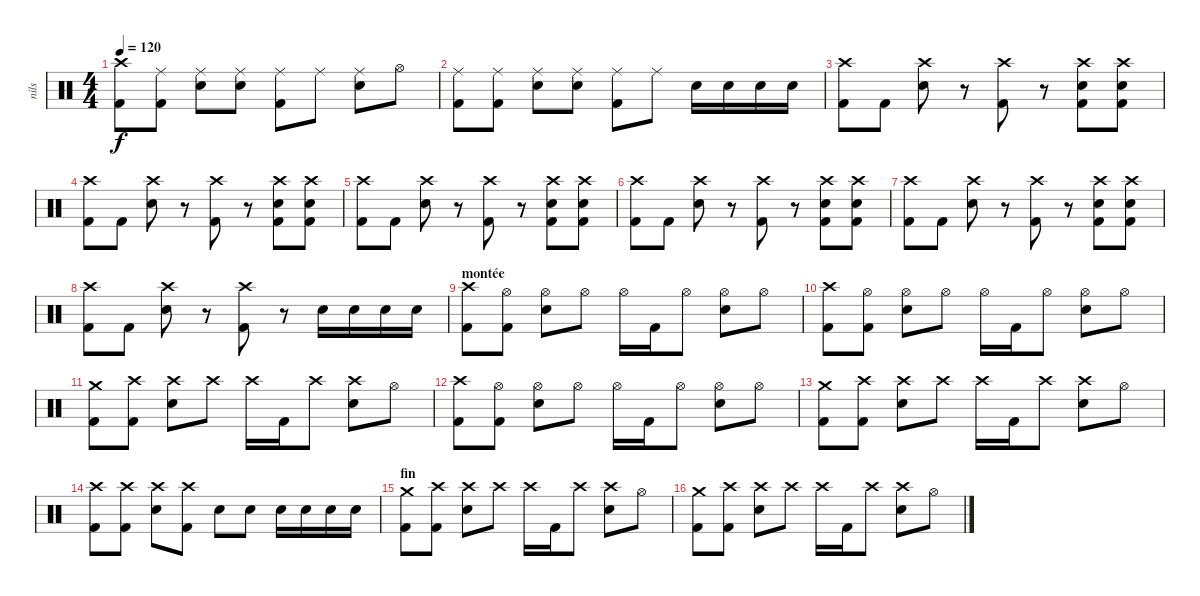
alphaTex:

\track ("nils" "nils") {instrument percussion}
\staff {score}
\articulation defaults
\ts (4 4)
\tempo 120
\clef neutral
\ks c
("Crash high (hit)" "Kick (hit) 2").8{dy f} ("Ride (middle)" "Kick (hit) 2").8 ("Ride (middle)" "Snare (hit) 2").8 ("Ride (middle)" "Snare (hit) 2").8 ("Ride (middle)" "Kick (hit) 2").8 "Ride (middle)".8 ("Ride (middle)" "Snare (hit) 2").8 "Hi-Hat (open)".8 |
("Ride (middle)" "Kick (hit) 2").8 ("Ride (middle)" "Kick (hit) 2").8 ("Ride (middle)" "Snare (hit) 2").8 ("Ride (middle)" "Snare (hit) 2").8 ("Ride (middle)" "Kick (hit) 2").8 "Ride (middle)".8 "Snare (hit) 2".16 "Snare (hit) 2".16 "Snare (hit) 2".16 "Snare (hit) 2".16 |
("Crash high (hit)" "Kick (hit) 2").8 "Kick (hit) 2".8 ("Crash high (hit)" "Snare (hit) 2").8 r.8 ("Crash high (hit)" "Kick (hit) 2").8 r.8 ("Crash high (hit)" "Snare (hit) 2" "Kick (hit) 2").8 ("Crash high (hit)" "Snare (hit) 2" "Kick (hit) 2").8 |
("Crash high (hit)" "Kick (hit) 2").8 "Kick (hit) 2".8 ("Crash high (hit)" "Snare (hit) 2").8 r.8 ("Crash high (hit)" "Kick (hit) 2").8 r.8 ("Crash high (hit)" "Snare (hit) 2" "Kick (hit) 2").8 ("Crash high (hit)" "Snare (hit) 2" "Kick (hit) 2").8 |
("Crash high (hit)" "Kick (hit) 2").8 "Kick (hit) 2".8 ("Crash high (hit)" "Snare (hit) 2").8 r.8 ("Crash high (hit)" "Kick (hit) 2").8 r.8 ("Crash high (hit)" "Snare (hit) 2" "Kick (hit) 2").8 ("Crash high (hit)" "Snare (hit) 2" "Kick (hit) 2").8 |
("Crash high (hit)" "Kick (hit) 2").8 "Kick (hit) 2".8 ("Crash high (hit)" "Snare (hit) 2").8 r.8 ("Crash high (hit)" "Kick (hit) 2").8 r.8 ("Crash high (hit)" "Snare (hit) 2" "Kick (hit) 2").8 ("Crash high (hit)" "Snare (hit) 2" "Kick (hit) 2").8 |
("Crash high (hit)" "Kick (hit) 2").8 "Kick (hit) 2".8 ("Crash high (hit)" "Snare (hit) 2").8 r.8 ("Crash high (hit)" "Kick (hit) 2").8 r.8 ("Crash high (hit)" "Snare (hit) 2" "Kick (hit) 2").8 ("Crash high (hit)" "Snare (hit) 2" "Kick (hit) 2").8 |
("Crash high (hit)" "Kick (hit) 2").8 "Kick (hit) 2".8 ("Crash high (hit)" "Snare (hit) 2").8 r.8 ("Crash high (hit)" "Kick (hit) 2").8 r.8 "Snare (hit) 2".16 "Snare (hit) 2".16 "Snare (hit) 2".16 "Snare (hit) 2".16 |
\section ("" "montée")
("Crash high (hit)" "Kick (hit) 2").8{volume 14 balance 8} ("Hi-Hat (open)" "Kick (hit) 2").8 ("Hi-Hat (open)" "Snare (hit) 2").8 "Hi-Hat (open)".8 "Hi-Hat (open)".16 "Kick (hit) 2".16 "Hi-Hat (open)".8 ("Hi-Hat (open)" "Snare (hit) 2").8 "Hi-Hat (open)".8 |
("Crash high (hit)" "Kick (hit) 2").8{volume 14 balance 8} ("Hi-Hat (open)" "Kick (hit) 2").8 ("Hi-Hat (open)" "Snare (hit) 2").8 "Hi-Hat (open)".8 "Hi-Hat (open)".16 "Kick (hit) 2".16 "Hi-Hat (open)".8 ("Hi-Hat (open)" "Snare (hit) 2").8 "Hi-Hat (open)".8 |
("Crash medium (hit)" "Kick (hit) 2").8 ("Crash high (hit)" "Kick (hit) 2").8 ("Crash high (hit)" "Snare (hit) 2").8 "Crash high (hit)".8 "Crash high (hit)".16 "Kick (hit) 2".16 "Crash high (hit)".8 ("Crash high (hit)" "Snare (hit) 2").8 "Hi-Hat (open)".8 |
("Crash high (hit)" "Kick (hit) 2").8{volume 14 balance 8} ("Hi-Hat (open)" "Kick (hit) 2").8 ("Hi-Hat (open)" "Snare (hit) 2").8 "Hi-Hat (open)".8 "Hi-Hat (open)".16 "Kick (hit) 2".16 "Hi-Hat (open)".8 ("Hi-Hat (open)" "Snare (hit) 2").8 "Hi-Hat (open)".8 |
("Crash medium (hit)" "Kick (hit) 2").8 ("Crash high (hit)" "Kick (hit) 2").8 ("Crash high (hit)" "Snare (hit) 2").8 "Crash high (hit)".8 "Crash high (hit)".16 "Kick (hit) 2".16 "Crash high (hit)".8 ("Crash high (hit)" "Snare (hit) 2").8 "Hi-Hat (open)".8 |
("Crash high (hit)" "Kick (hit) 2").8 ("Crash high (hit)" "Kick (hit) 2").8 ("Crash high (hit)" "Snare (hit) 2").8 ("Crash high (hit)" "Kick (hit) 2").8 "Snare (hit) 2".8 "Snare (hit) 2".8 "Snare (hit) 2".16 "Snare (hit) 2".16 "Snare (hit) 2".16 "Snare (hit) 2".16 |
\section ("" "fin")
("Crash medium (hit)" "Kick (hit) 2").8{volume 14 balance 8} ("Crash high (hit)" "Kick (hit) 2").8 ("Crash high (hit)" "Snare (hit) 2").8 "Crash high (hit)".8 "Crash high (hit)".16 "Kick (hit) 2".16 "Crash high (hit)".8 ("Crash high (hit)" "Snare (hit) 2").8 "Hi-Hat (open)".8 |
("Crash medium (hit)" "Kick (hit) 2").8 ("Crash high (hit)" "Kick (hit) 2").8 ("Crash high (hit)" "Snare (hit) 2").8 "Crash high (hit)".8 "Crash high (hit)".16 "Kick (hit) 2".16 "Crash high (hit)".8 ("Crash high (hit)" "Snare (hit) 2").8 "Hi-Hat (open)".8
